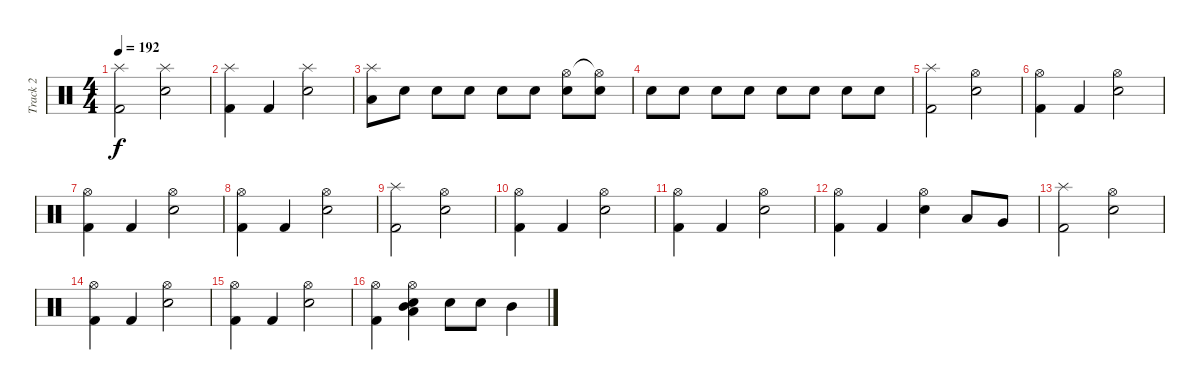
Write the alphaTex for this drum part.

\track ("Track 2" "Track 2") {instrument percussion}
\staff {score}
\articulation defaults
\ts (4 4)
\tempo 192
\clef neutral
\ks c
("Splash (hit)" "Kick (hit) 2").2{dy f} ("Splash (hit)" "Electric Snare (hit)").2 |
("Splash (hit)" "Kick (hit) 2").4 "Kick (hit) 2".4 ("Splash (hit)" "Electric Snare (hit)").2 |
("Splash (hit)" "Low Tom (hit)").8 "Electric Snare (hit)".8 "Electric Snare (hit)".8 "Electric Snare (hit)".8 "Electric Snare (hit)".8 "Electric Snare (hit)".8 ("Hi-Hat (open)" "Electric Snare (hit)").8 ("Hi-Hat (open)"{t} "Electric Snare (hit)").8 |
"Electric Snare (hit)".8 "Electric Snare (hit)".8 "Electric Snare (hit)".8 "Electric Snare (hit)".8 "Electric Snare (hit)".8 "Electric Snare (hit)".8 "Electric Snare (hit)".8 "Electric Snare (hit)".8 |
("Splash (hit)" "Kick (hit) 2").2 ("Hi-Hat (open)" "Electric Snare (hit)").2 |
("Hi-Hat (open)" "Kick (hit) 2").4 "Kick (hit) 2".4 ("Hi-Hat (open)" "Electric Snare (hit)").2 |
("Hi-Hat (open)" "Kick (hit) 2").4 "Kick (hit) 2".4 ("Hi-Hat (open)" "Electric Snare (hit)").2 |
("Hi-Hat (open)" "Kick (hit) 2").4 "Kick (hit) 2".4 ("Hi-Hat (open)" "Electric Snare (hit)").2 |
("Splash (hit)" "Kick (hit) 2").2 ("Hi-Hat (open)" "Electric Snare (hit)").2 |
("Hi-Hat (open)" "Kick (hit) 2").4 "Kick (hit) 2".4 ("Hi-Hat (open)" "Electric Snare (hit)").2 |
("Hi-Hat (open)" "Kick (hit) 2").4 "Kick (hit) 2".4 ("Hi-Hat (open)" "Electric Snare (hit)").2 |
("Hi-Hat (open)" "Kick (hit) 2").4 "Kick (hit) 2".4 ("Hi-Hat (open)" "Electric Snare (hit)").4 "Low Tom (hit)".8 "Very Low Tom (hit)".8 |
("Splash (hit)" "Kick (hit) 2").2 ("Hi-Hat (open)" "Electric Snare (hit)").2 |
("Hi-Hat (open)" "Kick (hit) 2").4 "Kick (hit) 2".4 ("Hi-Hat (open)" "Electric Snare (hit)").2 |
("Hi-Hat (open)" "Kick (hit) 2").4 "Kick (hit) 2".4 ("Hi-Hat (open)" "Electric Snare (hit)").2 |
("Hi-Hat (open)" "Kick (hit) 2").4 ("Hi-Hat (open)" "Electric Snare (hit)" "Mid Tom (hit)" "Low Tom (hit)").4 "Electric Snare (hit)".8 "Electric Snare (hit)".8 "Mid Tom (hit)".4
